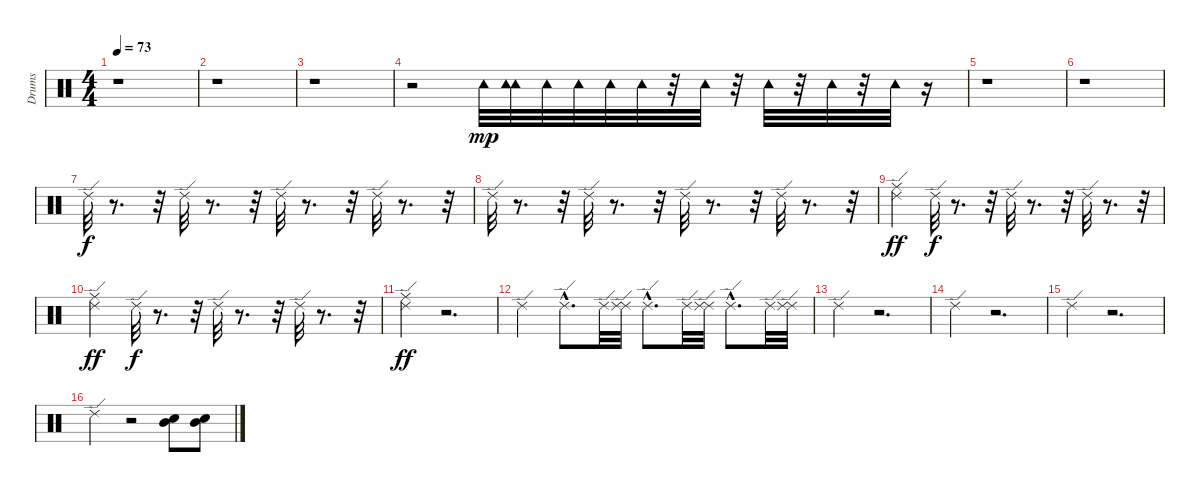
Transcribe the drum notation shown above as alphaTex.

\track ("Drums" "Drums") {instrument percussion}
\staff {score}
\articulation defaults
\ts (4 4)
\tempo 73
\clef neutral
\ks c
r.1{dy mp} |
r.1 |
r.1 |
r.2 "Tambourine (hit)".32 ("Tambourine (hit)" "Tambourine (hit)").32 "Tambourine (hit)".32 "Tambourine (hit)".32 "Tambourine (hit)".32 "Tambourine (hit)".32 r.32 "Tambourine (hit)".32 r.32 "Tambourine (hit)".32 r.32 "Tambourine (hit)".32 r.32 "Tambourine (hit)".32 r.16 |
r.1 |
r.1 |
"Ride (edge) 2".32{dy f} r.8{d} r.32 "Ride (edge) 2".32 r.8{d} r.32 "Ride (edge) 2".32 r.8{d} r.32 "Ride (edge) 2".32 r.8{d} r.32 |
"Ride (edge) 2".32 r.8{d} r.32 "Ride (edge) 2".32 r.8{d} r.32 "Ride (edge) 2".32 r.8{d} r.32 "Ride (edge) 2".32 r.8{d} r.32 |
("Ride (middle)" "Ride (edge) 2").4{dy ff} "Ride (edge) 2".32{dy f} r.8{d} r.32 "Ride (edge) 2".32 r.8{d} r.32 "Ride (edge) 2".32 r.8{d} r.32 |
("Ride (middle)" "Ride (edge) 2").4{dy ff} "Ride (edge) 2".32{dy f} r.8{d} r.32 "Ride (edge) 2".32 r.8{d} r.32 "Ride (edge) 2".32 r.8{d} r.32 |
("Ride (middle)" "Ride (edge) 2").4{dy ff} r.2{d} |
"Ride (edge) 2".4 "Ride (edge) 2"{hac}.8{d} "Ride (edge) 2".32 ("Ride (edge) 2" "Ride (edge) 2").32 "Ride (edge) 2"{hac}.8{d} "Ride (edge) 2".32 ("Ride (edge) 2" "Ride (edge) 2").32 "Ride (edge) 2"{hac}.8{d} "Ride (edge) 2".32 ("Ride (edge) 2" "Ride (edge) 2").32 |
"Ride (edge) 2".4 r.2{d} |
"Ride (edge) 2".4 r.2{d} |
"Ride (edge) 2".4 r.2{d} |
"Ride (edge) 2".4 r.2 ("Electric Snare (hit)" "Mid Tom (hit)").8 ("Mid Tom (hit)" "Electric Snare (hit)").8
